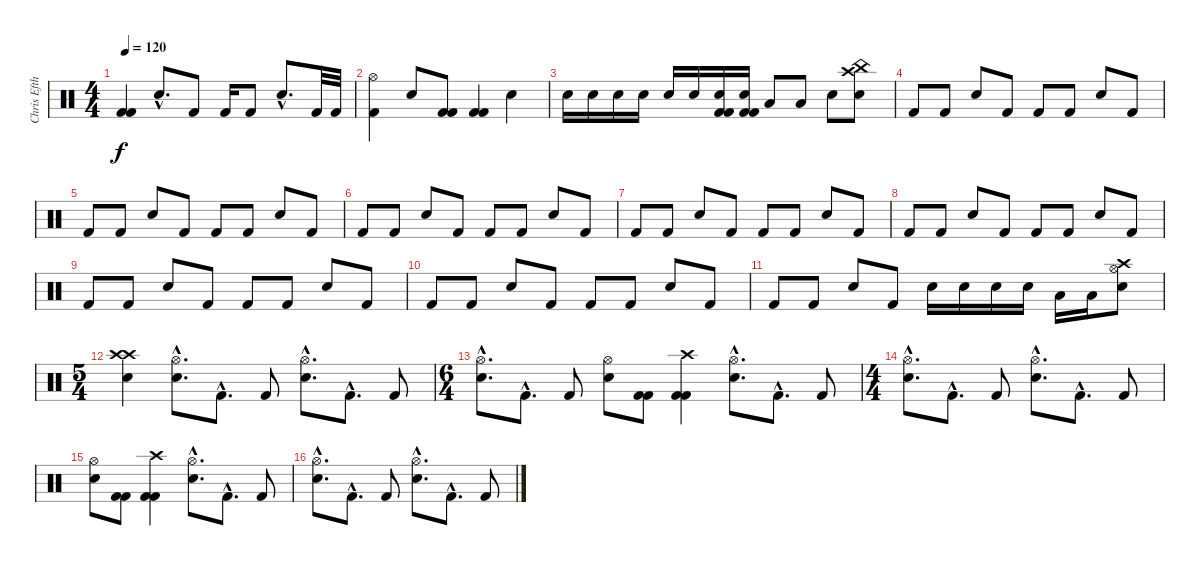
\track ("Chris Efthimiadis" "Chris Efth") {instrument percussion}
\staff {score}
\articulation defaults
\ts (4 4)
\tempo 120
\clef neutral
\ks c
("Kick (hit) 2" "Kick (hit) 2").4{dy f} "Snare (hit) 2"{hac}.8{d} "Kick (hit) 2".8 "Kick (hit) 2".16 "Kick (hit) 2".8 "Snare (hit) 2"{hac}.8{d} "Kick (hit) 2".32 "Kick (hit) 2".32 |
("Hi-Hat (open)" "Kick (hit) 2").4 "Snare (hit) 2".8 ("Kick (hit) 2" "Kick (hit) 2").8 ("Kick (hit) 2" "Kick (hit) 2").4 "Snare (hit) 2".4 |
"Snare (hit) 2".16 "Snare (hit) 2".16 "Snare (hit) 2".16 "Snare (hit) 2".16 "Snare (hit) 2".16 "Snare (hit) 2".16 ("Snare (hit) 2" "Kick (hit) 2" "Kick (hit) 2").16 ("Snare (hit) 2" "Kick (hit) 2" "Kick (hit) 2").16 "Low Tom (hit)".8 "Low Tom (hit)".8 "Snare (hit) 2".8 ("Snare (hit) 2" "China (hit)" "Crash high (hit)").8 |
"Kick (hit) 2".8 "Kick (hit) 2".8 "Snare (hit) 2".8 "Kick (hit) 2".8 "Kick (hit) 2".8 "Kick (hit) 2".8 "Snare (hit) 2".8 "Kick (hit) 2".8 |
"Kick (hit) 2".8 "Kick (hit) 2".8 "Snare (hit) 2".8 "Kick (hit) 2".8 "Kick (hit) 2".8 "Kick (hit) 2".8 "Snare (hit) 2".8 "Kick (hit) 2".8 |
"Kick (hit) 2".8 "Kick (hit) 2".8 "Snare (hit) 2".8 "Kick (hit) 2".8 "Kick (hit) 2".8 "Kick (hit) 2".8 "Snare (hit) 2".8 "Kick (hit) 2".8 |
"Kick (hit) 2".8 "Kick (hit) 2".8 "Snare (hit) 2".8 "Kick (hit) 2".8 "Kick (hit) 2".8 "Kick (hit) 2".8 "Snare (hit) 2".8 "Kick (hit) 2".8 |
"Kick (hit) 2".8 "Kick (hit) 2".8 "Snare (hit) 2".8 "Kick (hit) 2".8 "Kick (hit) 2".8 "Kick (hit) 2".8 "Snare (hit) 2".8 "Kick (hit) 2".8 |
"Kick (hit) 2".8 "Kick (hit) 2".8 "Snare (hit) 2".8 "Kick (hit) 2".8 "Kick (hit) 2".8 "Kick (hit) 2".8 "Snare (hit) 2".8 "Kick (hit) 2".8 |
"Kick (hit) 2".8 "Kick (hit) 2".8 "Snare (hit) 2".8 "Kick (hit) 2".8 "Kick (hit) 2".8 "Kick (hit) 2".8 "Snare (hit) 2".8 "Kick (hit) 2".8 |
"Kick (hit) 2".8 "Kick (hit) 2".8 "Snare (hit) 2".8 "Kick (hit) 2".8 "Snare (hit) 2".16 "Snare (hit) 2".16 "Snare (hit) 2".16 "Snare (hit) 2".16 "Low Tom (hit)".16 "Low Tom (hit)".16 ("Snare (hit) 2" "Crash high (hit)" "Hi-Hat (open)").8 |
\ts (5 4)
("Crash high (hit)" "Crash high (hit)" "Snare (hit) 2").4 ("Hi-Hat (open)"{hac} "Snare (hit) 2"{hac}).8{d} "Kick (hit) 2"{hac}.8{d} "Kick (hit) 2".8 ("Hi-Hat (open)"{hac} "Snare (hit) 2"{hac}).8{d} "Kick (hit) 2"{hac}.8{d} "Kick (hit) 2".8 |
\ts (6 4)
("Hi-Hat (open)"{hac} "Snare (hit) 2"{hac}).8{d} "Kick (hit) 2"{hac}.8{d} "Kick (hit) 2".8 ("Hi-Hat (open)" "Snare (hit) 2").8 ("Kick (hit) 2" "Kick (hit) 2").8 ("Crash high (hit)" "Kick (hit) 2" "Kick (hit) 2").4 ("Hi-Hat (open)"{hac} "Snare (hit) 2"{hac}).8{d} "Kick (hit) 2"{hac}.8{d} "Kick (hit) 2".8 |
\ts (4 4)
("Hi-Hat (open)"{hac} "Snare (hit) 2"{hac}).8{d} "Kick (hit) 2"{hac}.8{d} "Kick (hit) 2".8 ("Snare (hit) 2"{hac} "Hi-Hat (open)"{hac}).8{d} "Kick (hit) 2"{hac}.8{d} "Kick (hit) 2".8 |
("Hi-Hat (open)" "Snare (hit) 2").8 ("Kick (hit) 2" "Kick (hit) 2").8 ("Crash high (hit)" "Kick (hit) 2" "Kick (hit) 2").4 ("Hi-Hat (open)"{hac} "Snare (hit) 2"{hac}).8{d} "Kick (hit) 2"{hac}.8{d} "Kick (hit) 2".8 |
("Hi-Hat (open)"{hac} "Snare (hit) 2"{hac}).8{d} "Kick (hit) 2"{hac}.8{d} "Kick (hit) 2".8 ("Snare (hit) 2"{hac} "Hi-Hat (open)"{hac}).8{d} "Kick (hit) 2"{hac}.8{d} "Kick (hit) 2".8
